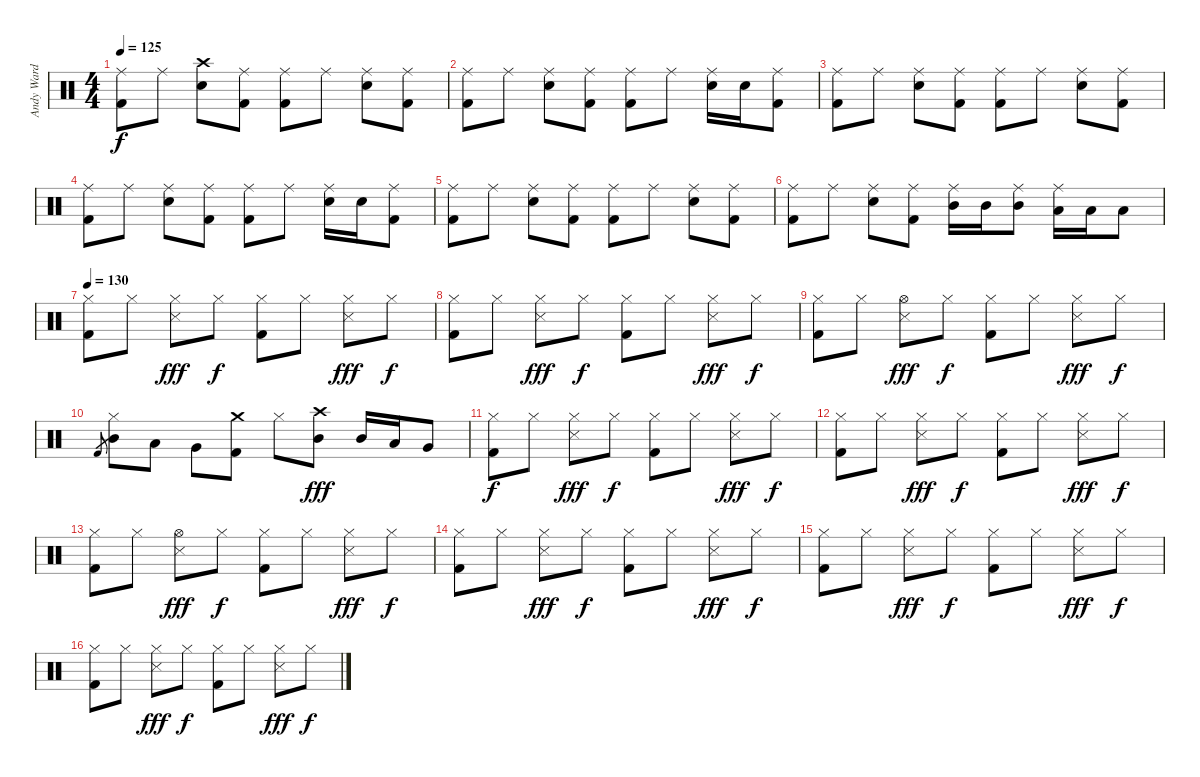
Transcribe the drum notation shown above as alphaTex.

\track ("Andy Ward" "Andy Ward") {instrument percussion}
\staff {score}
\articulation defaults
\ts (4 4)
\tempo 125
\clef neutral
\ks c
("Ride (middle)" "Kick (hit) 2").8{dy f} "Ride (middle)".8 ("Crash high (hit)" "Snare (hit) 2").8 ("Ride (middle)" "Kick (hit) 2").8 ("Ride (middle)" "Kick (hit) 2").8 "Ride (middle)".8 ("Ride (middle)" "Snare (hit) 2").8 ("Ride (middle)" "Kick (hit) 2").8 |
("Ride (middle)" "Kick (hit) 2").8 "Ride (middle)".8 ("Ride (middle)" "Snare (hit) 2").8 ("Ride (middle)" "Kick (hit) 2").8 ("Ride (middle)" "Kick (hit) 2").8 "Ride (middle)".8 ("Ride (middle)" "Snare (hit) 2").16 "Snare (hit) 2".16 ("Ride (middle)" "Kick (hit) 2").8 |
("Ride (middle)" "Kick (hit) 2").8 "Ride (middle)".8 ("Ride (middle)" "Snare (hit) 2").8 ("Ride (middle)" "Kick (hit) 2").8 ("Ride (middle)" "Kick (hit) 2").8 "Ride (middle)".8 ("Ride (middle)" "Snare (hit) 2").8 ("Ride (middle)" "Kick (hit) 2").8 |
("Ride (middle)" "Kick (hit) 2").8 "Ride (middle)".8 ("Ride (middle)" "Snare (hit) 2").8 ("Ride (middle)" "Kick (hit) 2").8 ("Ride (middle)" "Kick (hit) 2").8 "Ride (middle)".8 ("Ride (middle)" "Snare (hit) 2").16 "Snare (hit) 2".16 ("Ride (middle)" "Kick (hit) 2").8 |
("Ride (middle)" "Kick (hit) 2").8 "Ride (middle)".8 ("Ride (middle)" "Snare (hit) 2").8 ("Ride (middle)" "Kick (hit) 2").8 ("Ride (middle)" "Kick (hit) 2").8 "Ride (middle)".8 ("Ride (middle)" "Snare (hit) 2").8 ("Ride (middle)" "Kick (hit) 2").8 |
("Ride (middle)" "Kick (hit) 2").8 "Ride (middle)".8 ("Ride (middle)" "Snare (hit) 2").8 ("Ride (middle)" "Kick (hit) 2").8 ("Ride (middle)" "Mid Tom (hit)").16 "Mid Tom (hit)".16 ("Ride (middle)" "Mid Tom (hit)").8 ("Ride (middle)" "Low Tom (hit)").16 "Low Tom (hit)".16 "Low Tom (hit)".8 |
\tempo 130
("Hi-Hat (closed)" "Kick (hit) 2").8 "Hi-Hat (closed)".8 ("Hi-Hat (closed)" "Snare (side stick) 3").8{dy fff} "Hi-Hat (closed)".8{dy f} ("Hi-Hat (closed)" "Kick (hit) 2").8 "Hi-Hat (closed)".8 ("Hi-Hat (closed)" "Snare (side stick) 3").8{dy fff} "Hi-Hat (closed)".8{dy f} |
("Hi-Hat (closed)" "Kick (hit) 2").8 "Hi-Hat (closed)".8 ("Hi-Hat (closed)" "Snare (side stick) 3").8{dy fff} "Hi-Hat (closed)".8{dy f} ("Hi-Hat (closed)" "Kick (hit) 2").8 "Hi-Hat (closed)".8 ("Hi-Hat (closed)" "Snare (side stick) 3").8{dy fff} "Hi-Hat (closed)".8{dy f} |
("Hi-Hat (closed)" "Kick (hit) 2").8 "Hi-Hat (closed)".8 ("Hi-Hat (open)" "Snare (side stick) 3").8{dy fff} "Hi-Hat (closed)".8{dy f} ("Hi-Hat (closed)" "Kick (hit) 2").8 "Hi-Hat (closed)".8 ("Hi-Hat (closed)" "Snare (side stick) 3").8{dy fff} "Hi-Hat (closed)".8{dy f} |
"Kick (hit) 2".8{gr} ("Hi-Hat (closed)" "Mid Tom (hit)").8 "Low Tom (hit)".8 "Very Low Tom (hit)".8 ("Crash medium (hit)" "Kick (hit) 2").8 "Hi-Hat (closed)".8 ("Crash high (hit)" "Mid Tom (hit)").8{dy fff} "Mid Tom (hit)".16 "Low Tom (hit)".16 "Very Low Tom (hit)".8 |
("Hi-Hat (closed)" "Kick (hit) 2").8{dy f} "Hi-Hat (closed)".8 ("Hi-Hat (closed)" "Snare (side stick) 3").8{dy fff} "Hi-Hat (closed)".8{dy f} ("Hi-Hat (closed)" "Kick (hit) 2").8 "Hi-Hat (closed)".8 ("Hi-Hat (closed)" "Snare (side stick) 3").8{dy fff} "Hi-Hat (closed)".8{dy f} |
("Hi-Hat (closed)" "Kick (hit) 2").8 "Hi-Hat (closed)".8 ("Hi-Hat (closed)" "Snare (side stick) 3").8{dy fff} "Hi-Hat (closed)".8{dy f} ("Hi-Hat (closed)" "Kick (hit) 2").8 "Hi-Hat (closed)".8 ("Hi-Hat (closed)" "Snare (side stick) 3").8{dy fff} "Hi-Hat (closed)".8{dy f} |
("Hi-Hat (closed)" "Kick (hit) 2").8 "Hi-Hat (closed)".8 ("Hi-Hat (open)" "Snare (side stick) 3").8{dy fff} "Hi-Hat (closed)".8{dy f} ("Hi-Hat (closed)" "Kick (hit) 2").8 "Hi-Hat (closed)".8 ("Hi-Hat (closed)" "Snare (side stick) 3").8{dy fff} "Hi-Hat (closed)".8{dy f} |
("Hi-Hat (closed)" "Kick (hit) 2").8 "Hi-Hat (closed)".8 ("Hi-Hat (closed)" "Snare (side stick) 3").8{dy fff} "Hi-Hat (closed)".8{dy f} ("Hi-Hat (closed)" "Kick (hit) 2").8 "Hi-Hat (closed)".8 ("Hi-Hat (closed)" "Snare (side stick) 3").8{dy fff} "Hi-Hat (closed)".8{dy f} |
("Hi-Hat (closed)" "Kick (hit) 2").8 "Hi-Hat (closed)".8 ("Hi-Hat (closed)" "Snare (side stick) 3").8{dy fff} "Hi-Hat (closed)".8{dy f} ("Hi-Hat (closed)" "Kick (hit) 2").8 "Hi-Hat (closed)".8 ("Hi-Hat (closed)" "Snare (side stick) 3").8{dy fff} "Hi-Hat (closed)".8{dy f} |
("Hi-Hat (closed)" "Kick (hit) 2").8 "Hi-Hat (closed)".8 ("Hi-Hat (closed)" "Snare (side stick) 3").8{dy fff} "Hi-Hat (closed)".8{dy f} ("Hi-Hat (closed)" "Kick (hit) 2").8 "Hi-Hat (closed)".8 ("Hi-Hat (closed)" "Snare (side stick) 3").8{dy fff} "Hi-Hat (closed)".8{dy f}
